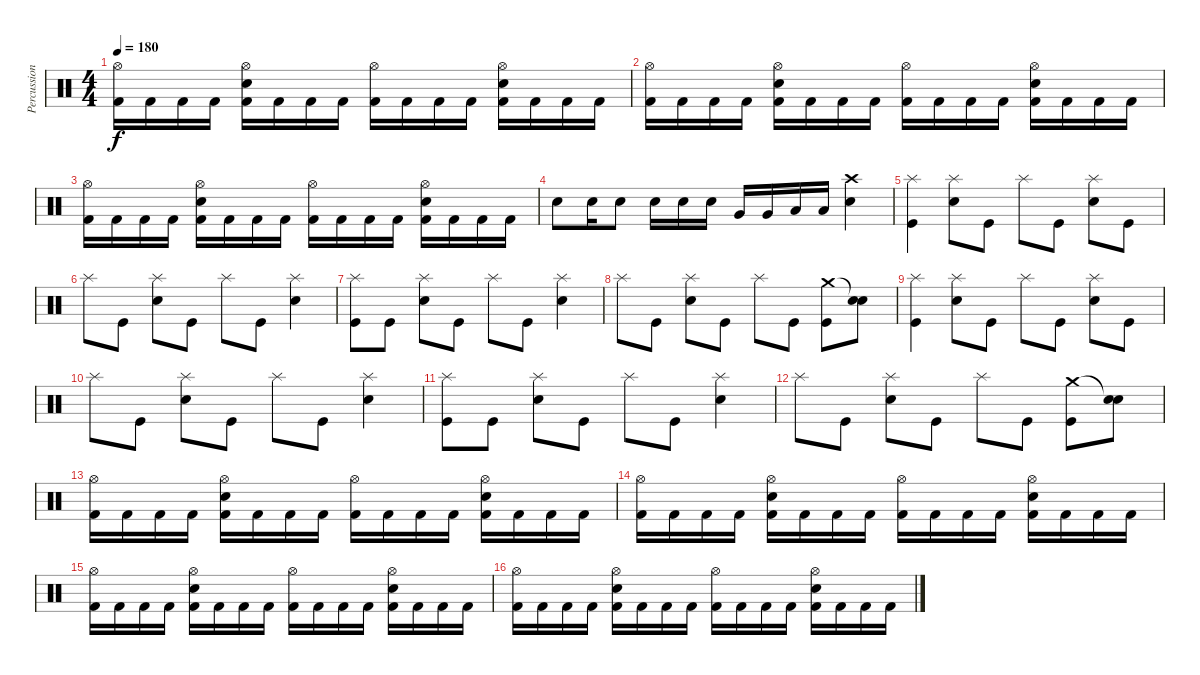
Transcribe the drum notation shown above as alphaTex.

\track ("Percussion" "Percussion") {instrument percussion}
\staff {score}
\articulation defaults
\ts (4 4)
\tempo 180
\clef neutral
\ks c
("Hi-Hat (open)" "Kick (hit) 2").16{dy f} "Kick (hit) 2".16 "Kick (hit) 2".16 "Kick (hit) 2".16 ("Hi-Hat (open)" "Electric Snare (hit)" "Kick (hit) 2").16 "Kick (hit) 2".16 "Kick (hit) 2".16 "Kick (hit) 2".16 ("Hi-Hat (open)" "Kick (hit) 2").16 "Kick (hit) 2".16 "Kick (hit) 2".16 "Kick (hit) 2".16 ("Hi-Hat (open)" "Electric Snare (hit)" "Kick (hit) 2").16 "Kick (hit) 2".16 "Kick (hit) 2".16 "Kick (hit) 2".16 |
("Hi-Hat (open)" "Kick (hit) 2").16 "Kick (hit) 2".16 "Kick (hit) 2".16 "Kick (hit) 2".16 ("Hi-Hat (open)" "Electric Snare (hit)" "Kick (hit) 2").16 "Kick (hit) 2".16 "Kick (hit) 2".16 "Kick (hit) 2".16 ("Hi-Hat (open)" "Kick (hit) 2").16 "Kick (hit) 2".16 "Kick (hit) 2".16 "Kick (hit) 2".16 ("Hi-Hat (open)" "Electric Snare (hit)" "Kick (hit) 2").16 "Kick (hit) 2".16 "Kick (hit) 2".16 "Kick (hit) 2".16 |
("Hi-Hat (open)" "Kick (hit) 2").16 "Kick (hit) 2".16 "Kick (hit) 2".16 "Kick (hit) 2".16 ("Hi-Hat (open)" "Electric Snare (hit)" "Kick (hit) 2").16 "Kick (hit) 2".16 "Kick (hit) 2".16 "Kick (hit) 2".16 ("Hi-Hat (open)" "Kick (hit) 2").16 "Kick (hit) 2".16 "Kick (hit) 2".16 "Kick (hit) 2".16 ("Hi-Hat (open)" "Electric Snare (hit)" "Kick (hit) 2").16 "Kick (hit) 2".16 "Kick (hit) 2".16 "Kick (hit) 2".16 |
"Electric Snare (hit)".8 "Electric Snare (hit)".16 "Electric Snare (hit)".8 "Electric Snare (hit)".16 "Electric Snare (hit)".16 "Electric Snare (hit)".16 "Very Low Tom (hit)".16 "Very Low Tom (hit)".16 "Low Floor Tom (hit)".16 "Low Floor Tom (hit)".16 ("Crash high (hit)" "Electric Snare (hit)").4 |
("Splash (hit)" "Kick (hit)").4 ("Splash (hit)" "Electric Snare (hit)").8 "Kick (hit)".8 "Splash (hit)".8 "Kick (hit)".8 ("Splash (hit)" "Electric Snare (hit)").8 "Kick (hit)".8 |
"Splash (hit)".8 "Kick (hit)".8 ("Splash (hit)" "Electric Snare (hit)").8 "Kick (hit)".8 "Splash (hit)".8 "Kick (hit)".8 ("Splash (hit)" "Electric Snare (hit)").4 |
("Splash (hit)" "Kick (hit)").8 "Kick (hit)".8 ("Splash (hit)" "Electric Snare (hit)").8 "Kick (hit)".8 "Splash (hit)".8 "Kick (hit)".8 ("Splash (hit)" "Electric Snare (hit)").4 |
"Splash (hit)".8 "Kick (hit)".8 ("Splash (hit)" "Electric Snare (hit)").8 "Kick (hit)".8 "Splash (hit)".8 "Kick (hit)".8 ("Crash medium (hit)" "Kick (hit)").8 ("Snare (hit)"{t} "Electric Snare (hit)").8 |
("Splash (hit)" "Kick (hit)").4 ("Splash (hit)" "Electric Snare (hit)").8 "Kick (hit)".8 "Splash (hit)".8 "Kick (hit)".8 ("Splash (hit)" "Electric Snare (hit)").8 "Kick (hit)".8 |
"Splash (hit)".8 "Kick (hit)".8 ("Splash (hit)" "Electric Snare (hit)").8 "Kick (hit)".8 "Splash (hit)".8 "Kick (hit)".8 ("Splash (hit)" "Electric Snare (hit)").4 |
("Splash (hit)" "Kick (hit)").8 "Kick (hit)".8 ("Splash (hit)" "Electric Snare (hit)").8 "Kick (hit)".8 "Splash (hit)".8 "Kick (hit)".8 ("Splash (hit)" "Electric Snare (hit)").4 |
"Splash (hit)".8 "Kick (hit)".8 ("Splash (hit)" "Electric Snare (hit)").8 "Kick (hit)".8 "Splash (hit)".8 "Kick (hit)".8 ("Crash medium (hit)" "Kick (hit)").8 ("Snare (hit)"{t} "Electric Snare (hit)").8 |
("Hi-Hat (open)" "Kick (hit) 2").16 "Kick (hit) 2".16 "Kick (hit) 2".16 "Kick (hit) 2".16 ("Hi-Hat (open)" "Electric Snare (hit)" "Kick (hit) 2").16 "Kick (hit) 2".16 "Kick (hit) 2".16 "Kick (hit) 2".16 ("Hi-Hat (open)" "Kick (hit) 2").16 "Kick (hit) 2".16 "Kick (hit) 2".16 "Kick (hit) 2".16 ("Hi-Hat (open)" "Electric Snare (hit)" "Kick (hit) 2").16 "Kick (hit) 2".16 "Kick (hit) 2".16 "Kick (hit) 2".16 |
("Hi-Hat (open)" "Kick (hit) 2").16 "Kick (hit) 2".16 "Kick (hit) 2".16 "Kick (hit) 2".16 ("Hi-Hat (open)" "Electric Snare (hit)" "Kick (hit) 2").16 "Kick (hit) 2".16 "Kick (hit) 2".16 "Kick (hit) 2".16 ("Hi-Hat (open)" "Kick (hit) 2").16 "Kick (hit) 2".16 "Kick (hit) 2".16 "Kick (hit) 2".16 ("Hi-Hat (open)" "Electric Snare (hit)" "Kick (hit) 2").16 "Kick (hit) 2".16 "Kick (hit) 2".16 "Kick (hit) 2".16 |
("Hi-Hat (open)" "Kick (hit) 2").16 "Kick (hit) 2".16 "Kick (hit) 2".16 "Kick (hit) 2".16 ("Hi-Hat (open)" "Electric Snare (hit)" "Kick (hit) 2").16 "Kick (hit) 2".16 "Kick (hit) 2".16 "Kick (hit) 2".16 ("Hi-Hat (open)" "Kick (hit) 2").16 "Kick (hit) 2".16 "Kick (hit) 2".16 "Kick (hit) 2".16 ("Hi-Hat (open)" "Electric Snare (hit)" "Kick (hit) 2").16 "Kick (hit) 2".16 "Kick (hit) 2".16 "Kick (hit) 2".16 |
("Hi-Hat (open)" "Kick (hit) 2").16 "Kick (hit) 2".16 "Kick (hit) 2".16 "Kick (hit) 2".16 ("Hi-Hat (open)" "Electric Snare (hit)" "Kick (hit) 2").16 "Kick (hit) 2".16 "Kick (hit) 2".16 "Kick (hit) 2".16 ("Hi-Hat (open)" "Kick (hit) 2").16 "Kick (hit) 2".16 "Kick (hit) 2".16 "Kick (hit) 2".16 ("Hi-Hat (open)" "Electric Snare (hit)" "Kick (hit) 2").16 "Kick (hit) 2".16 "Kick (hit) 2".16 "Kick (hit) 2".16
